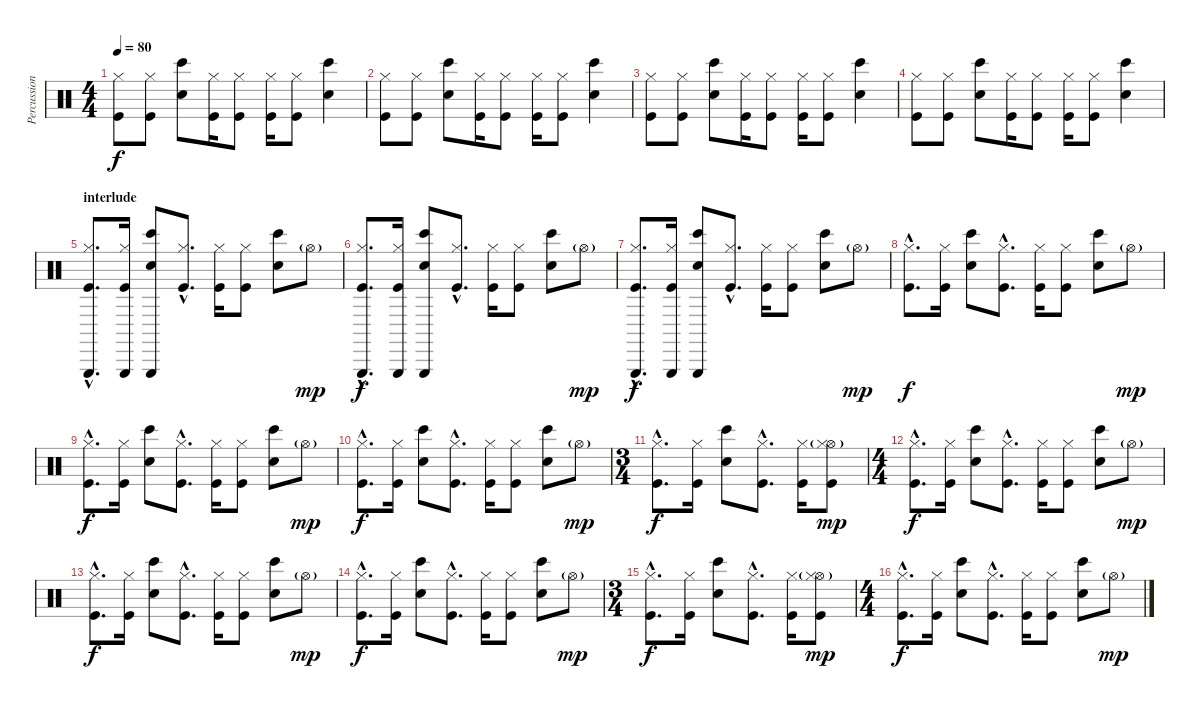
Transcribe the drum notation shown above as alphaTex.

\track ("Percussions" "Percussion") {instrument percussion}
\staff {score}
\articulation defaults
\ts (4 4)
\tempo 80
\clef neutral
\ks c
("Hi-Hat (closed)" "Kick (hit)").8{dy f} ("Hi-Hat (closed)" "Kick (hit)").8 ("Electric Snare (hit)" "Bongo High (hit)").8 ("Hi-Hat (closed)" "Kick (hit)").16 ("Hi-Hat (closed)" "Kick (hit)").8 ("Hi-Hat (closed)" "Kick (hit)").16 ("Hi-Hat (closed)" "Kick (hit)").8 ("Electric Snare (hit)" "Bongo High (hit)").4 |
("Hi-Hat (closed)" "Kick (hit)").8 ("Hi-Hat (closed)" "Kick (hit)").8 ("Electric Snare (hit)" "Bongo High (hit)").8 ("Hi-Hat (closed)" "Kick (hit)").16 ("Hi-Hat (closed)" "Kick (hit)").8 ("Hi-Hat (closed)" "Kick (hit)").16 ("Hi-Hat (closed)" "Kick (hit)").8 ("Electric Snare (hit)" "Bongo High (hit)").4 |
("Hi-Hat (closed)" "Kick (hit)").8 ("Hi-Hat (closed)" "Kick (hit)").8 ("Electric Snare (hit)" "Bongo High (hit)").8 ("Hi-Hat (closed)" "Kick (hit)").16 ("Hi-Hat (closed)" "Kick (hit)").8 ("Hi-Hat (closed)" "Kick (hit)").16 ("Hi-Hat (closed)" "Kick (hit)").8 ("Electric Snare (hit)" "Bongo High (hit)").4 |
("Hi-Hat (closed)" "Kick (hit)").8 ("Hi-Hat (closed)" "Kick (hit)").8 ("Electric Snare (hit)" "Bongo High (hit)").8 ("Hi-Hat (closed)" "Kick (hit)").16 ("Hi-Hat (closed)" "Kick (hit)").8 ("Hi-Hat (closed)" "Kick (hit)").16 ("Hi-Hat (closed)" "Kick (hit)").8 ("Electric Snare (hit)" "Bongo High (hit)").4 |
\section ("" "interlude")
("Triangle (hit)"{hac} "Hi-Hat (closed)"{hac} "Kick (hit)"{hac}).8{d} ("Triangle (hit)" "Hi-Hat (closed)" "Kick (hit)").16 ("Triangle (hit)" "Electric Snare (hit)" "Bongo High (hit)").8 ("Hi-Hat (closed)"{hac} "Kick (hit)"{hac}).8{d} ("Hi-Hat (closed)" "Kick (hit)").16 ("Hi-Hat (closed)" "Kick (hit)").8 ("Electric Snare (hit)" "Bongo High (hit)").8 "Hi-Hat (open)"{g}.8{dy mp} |
("Triangle (hit)"{hac} "Hi-Hat (closed)"{hac} "Kick (hit)"{hac}).8{d dy f} ("Triangle (hit)" "Hi-Hat (closed)" "Kick (hit)").16 ("Triangle (hit)" "Electric Snare (hit)" "Bongo High (hit)").8 ("Hi-Hat (closed)"{hac} "Kick (hit)"{hac}).8{d} ("Hi-Hat (closed)" "Kick (hit)").16 ("Hi-Hat (closed)" "Kick (hit)").8 ("Electric Snare (hit)" "Bongo High (hit)").8 "Hi-Hat (open)"{g}.8{dy mp} |
("Triangle (hit)"{hac} "Hi-Hat (closed)"{hac} "Kick (hit)"{hac}).8{d dy f} ("Triangle (hit)" "Hi-Hat (closed)" "Kick (hit)").16 ("Triangle (hit)" "Electric Snare (hit)" "Bongo High (hit)").8 ("Hi-Hat (closed)"{hac} "Kick (hit)"{hac}).8{d} ("Hi-Hat (closed)" "Kick (hit)").16 ("Hi-Hat (closed)" "Kick (hit)").8 ("Electric Snare (hit)" "Bongo High (hit)").8 "Hi-Hat (open)"{g}.8{dy mp} |
("Hi-Hat (closed)"{hac} "Kick (hit)"{hac}).8{d dy f} ("Hi-Hat (closed)" "Kick (hit)").16 ("Electric Snare (hit)" "Bongo High (hit)").8 ("Hi-Hat (closed)"{hac} "Kick (hit)"{hac}).8{d} ("Hi-Hat (closed)" "Kick (hit)").16 ("Hi-Hat (closed)" "Kick (hit)").8 ("Electric Snare (hit)" "Bongo High (hit)").8 "Hi-Hat (open)"{g}.8{dy mp} |
("Hi-Hat (closed)"{hac} "Kick (hit)"{hac}).8{d dy f} ("Hi-Hat (closed)" "Kick (hit)").16 ("Electric Snare (hit)" "Bongo High (hit)").8 ("Hi-Hat (closed)"{hac} "Kick (hit)"{hac}).8{d} ("Hi-Hat (closed)" "Kick (hit)").16 ("Hi-Hat (closed)" "Kick (hit)").8 ("Electric Snare (hit)" "Bongo High (hit)").8 "Hi-Hat (open)"{g}.8{dy mp} |
("Hi-Hat (closed)"{hac} "Kick (hit)"{hac}).8{d dy f} ("Hi-Hat (closed)" "Kick (hit)").16 ("Electric Snare (hit)" "Bongo High (hit)").8 ("Hi-Hat (closed)"{hac} "Kick (hit)"{hac}).8{d} ("Hi-Hat (closed)" "Kick (hit)").16 ("Hi-Hat (closed)" "Kick (hit)").8 ("Electric Snare (hit)" "Bongo High (hit)").8 "Hi-Hat (open)"{g}.8{dy mp} |
\ts (3 4)
("Hi-Hat (closed)"{hac} "Kick (hit)"{hac}).8{d dy f} ("Hi-Hat (closed)" "Kick (hit)").16 ("Electric Snare (hit)" "Bongo High (hit)").8 ("Hi-Hat (closed)"{hac} "Kick (hit)"{hac}).8{d} ("Hi-Hat (closed)" "Kick (hit)").16 ("Hi-Hat (open)"{g} "Hi-Hat (closed)" "Kick (hit)").8{dy mp} |
\ts (4 4)
("Hi-Hat (closed)"{hac} "Kick (hit)"{hac}).8{d dy f} ("Hi-Hat (closed)" "Kick (hit)").16 ("Electric Snare (hit)" "Bongo High (hit)").8 ("Hi-Hat (closed)"{hac} "Kick (hit)"{hac}).8{d} ("Hi-Hat (closed)" "Kick (hit)").16 ("Hi-Hat (closed)" "Kick (hit)").8 ("Electric Snare (hit)" "Bongo High (hit)").8 "Hi-Hat (open)"{g}.8{dy mp} |
("Hi-Hat (closed)"{hac} "Kick (hit)"{hac}).8{d dy f} ("Hi-Hat (closed)" "Kick (hit)").16 ("Electric Snare (hit)" "Bongo High (hit)").8 ("Hi-Hat (closed)"{hac} "Kick (hit)"{hac}).8{d} ("Hi-Hat (closed)" "Kick (hit)").16 ("Hi-Hat (closed)" "Kick (hit)").8 ("Electric Snare (hit)" "Bongo High (hit)").8 "Hi-Hat (open)"{g}.8{dy mp} |
("Hi-Hat (closed)"{hac} "Kick (hit)"{hac}).8{d dy f} ("Hi-Hat (closed)" "Kick (hit)").16 ("Electric Snare (hit)" "Bongo High (hit)").8 ("Hi-Hat (closed)"{hac} "Kick (hit)"{hac}).8{d} ("Hi-Hat (closed)" "Kick (hit)").16 ("Hi-Hat (closed)" "Kick (hit)").8 ("Electric Snare (hit)" "Bongo High (hit)").8 "Hi-Hat (open)"{g}.8{dy mp} |
\ts (3 4)
("Hi-Hat (closed)"{hac} "Kick (hit)"{hac}).8{d dy f} ("Hi-Hat (closed)" "Kick (hit)").16 ("Electric Snare (hit)" "Bongo High (hit)").8 ("Hi-Hat (closed)"{hac} "Kick (hit)"{hac}).8{d} ("Hi-Hat (closed)" "Kick (hit)").16 ("Hi-Hat (open)"{g} "Hi-Hat (closed)" "Kick (hit)").8{dy mp} |
\ts (4 4)
("Hi-Hat (closed)"{hac} "Kick (hit)"{hac}).8{d dy f} ("Hi-Hat (closed)" "Kick (hit)").16 ("Electric Snare (hit)" "Bongo High (hit)").8 ("Hi-Hat (closed)"{hac} "Kick (hit)"{hac}).8{d} ("Hi-Hat (closed)" "Kick (hit)").16 ("Hi-Hat (closed)" "Kick (hit)").8 ("Electric Snare (hit)" "Bongo High (hit)").8 "Hi-Hat (open)"{g}.8{dy mp}
